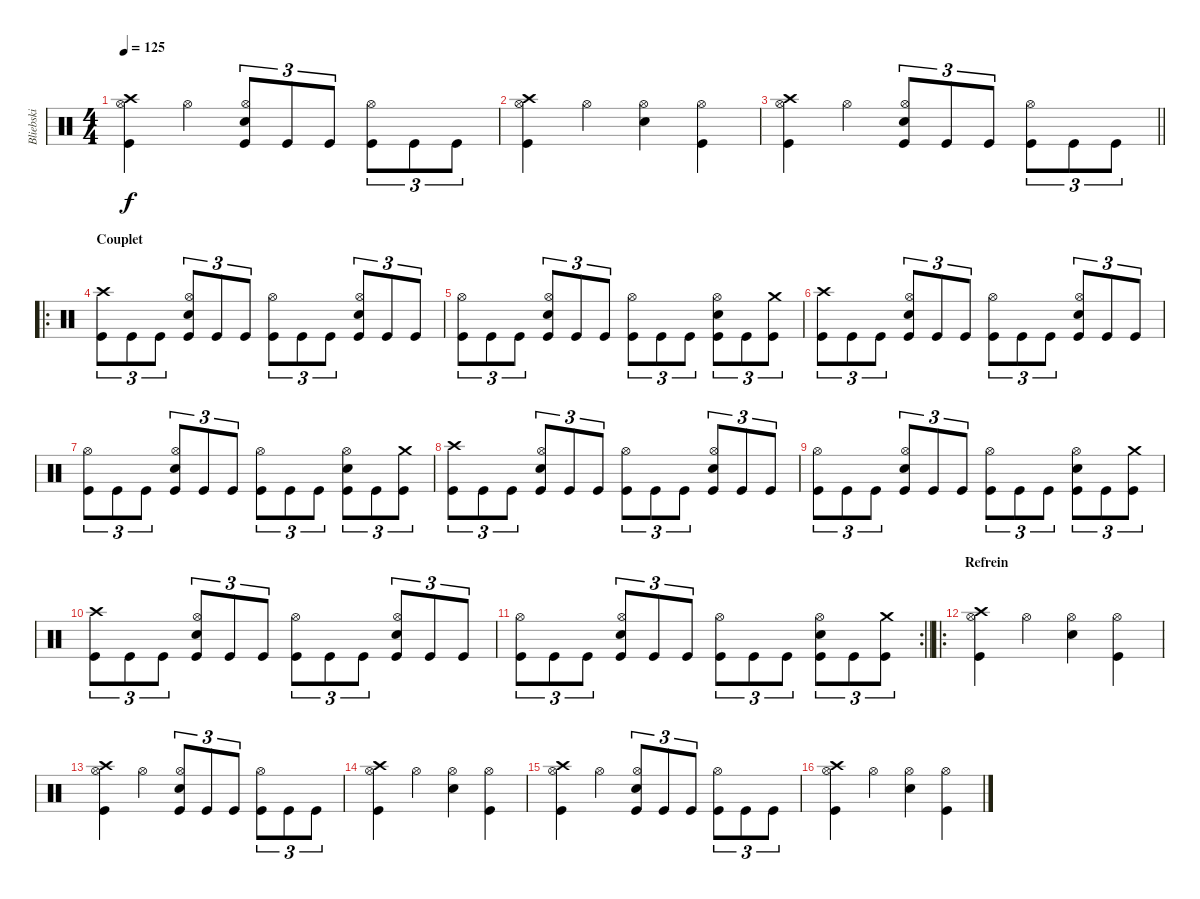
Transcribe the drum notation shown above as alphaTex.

\track ("Bliebski" "Bliebski") {instrument percussion}
\staff {score}
\articulation defaults
\ts (4 4)
\tempo 125
\clef neutral
\ks c
("Crash high (hit)" "Kick (hit)" "Hi-Hat (open)").4{dy f} "Hi-Hat (open)".4 ("Kick (hit)" "Hi-Hat (open)" "Snare (hit) 2").8{tu (3 2)} "Kick (hit)".8{tu (3 2)} "Kick (hit)".8{tu (3 2)} ("Kick (hit)" "Hi-Hat (open)").8{tu (3 2)} "Kick (hit)".8{tu (3 2)} "Kick (hit)".8{tu (3 2)} |
("Crash high (hit)" "Kick (hit)" "Hi-Hat (open)").4 "Hi-Hat (open)".4 ("Hi-Hat (open)" "Snare (hit) 2").4 ("Kick (hit)" "Hi-Hat (open)").4 |
\barLineRight lightlight
("Crash high (hit)" "Kick (hit)" "Hi-Hat (open)").4 "Hi-Hat (open)".4 ("Kick (hit)" "Hi-Hat (open)" "Snare (hit) 2").8{tu (3 2)} "Kick (hit)".8{tu (3 2)} "Kick (hit)".8{tu (3 2)} ("Kick (hit)" "Hi-Hat (open)").8{tu (3 2)} "Kick (hit)".8{tu (3 2)} "Kick (hit)".8{tu (3 2)} |
\ro
\section ("" "Couplet")
("Crash high (hit)" "Kick (hit)").8{tu (3 2)} "Kick (hit)".8{tu (3 2)} "Kick (hit)".8{tu (3 2)} ("Snare (hit) 2" "Kick (hit)" "Hi-Hat (open)").8{tu (3 2)} "Kick (hit)".8{tu (3 2)} "Kick (hit)".8{tu (3 2)} ("Kick (hit)" "Hi-Hat (open)").8{tu (3 2)} "Kick (hit)".8{tu (3 2)} "Kick (hit)".8{tu (3 2)} ("Snare (hit) 2" "Kick (hit)" "Hi-Hat (open)").8{tu (3 2)} "Kick (hit)".8{tu (3 2)} "Kick (hit)".8{tu (3 2)} |
("Kick (hit)" "Hi-Hat (open)").8{tu (3 2)} "Kick (hit)".8{tu (3 2)} "Kick (hit)".8{tu (3 2)} ("Snare (hit) 2" "Kick (hit)" "Hi-Hat (open)").8{tu (3 2)} "Kick (hit)".8{tu (3 2)} "Kick (hit)".8{tu (3 2)} ("Kick (hit)" "Hi-Hat (open)").8{tu (3 2)} "Kick (hit)".8{tu (3 2)} "Kick (hit)".8{tu (3 2)} ("Snare (hit) 2" "Kick (hit)" "Hi-Hat (open)").8{tu (3 2)} "Kick (hit)".8{tu (3 2)} ("Kick (hit)" "Crash medium (hit)").8{tu (3 2)} |
("Crash high (hit)" "Kick (hit)").8{tu (3 2)} "Kick (hit)".8{tu (3 2)} "Kick (hit)".8{tu (3 2)} ("Snare (hit) 2" "Kick (hit)" "Hi-Hat (open)").8{tu (3 2)} "Kick (hit)".8{tu (3 2)} "Kick (hit)".8{tu (3 2)} ("Kick (hit)" "Hi-Hat (open)").8{tu (3 2)} "Kick (hit)".8{tu (3 2)} "Kick (hit)".8{tu (3 2)} ("Snare (hit) 2" "Kick (hit)" "Hi-Hat (open)").8{tu (3 2)} "Kick (hit)".8{tu (3 2)} "Kick (hit)".8{tu (3 2)} |
("Kick (hit)" "Hi-Hat (open)").8{tu (3 2)} "Kick (hit)".8{tu (3 2)} "Kick (hit)".8{tu (3 2)} ("Snare (hit) 2" "Kick (hit)" "Hi-Hat (open)").8{tu (3 2)} "Kick (hit)".8{tu (3 2)} "Kick (hit)".8{tu (3 2)} ("Kick (hit)" "Hi-Hat (open)").8{tu (3 2)} "Kick (hit)".8{tu (3 2)} "Kick (hit)".8{tu (3 2)} ("Snare (hit) 2" "Kick (hit)" "Hi-Hat (open)").8{tu (3 2)} "Kick (hit)".8{tu (3 2)} ("Kick (hit)" "Crash medium (hit)").8{tu (3 2)} |
("Crash high (hit)" "Kick (hit)").8{tu (3 2)} "Kick (hit)".8{tu (3 2)} "Kick (hit)".8{tu (3 2)} ("Snare (hit) 2" "Kick (hit)" "Hi-Hat (open)").8{tu (3 2)} "Kick (hit)".8{tu (3 2)} "Kick (hit)".8{tu (3 2)} ("Kick (hit)" "Hi-Hat (open)").8{tu (3 2)} "Kick (hit)".8{tu (3 2)} "Kick (hit)".8{tu (3 2)} ("Snare (hit) 2" "Kick (hit)" "Hi-Hat (open)").8{tu (3 2)} "Kick (hit)".8{tu (3 2)} "Kick (hit)".8{tu (3 2)} |
("Kick (hit)" "Hi-Hat (open)").8{tu (3 2)} "Kick (hit)".8{tu (3 2)} "Kick (hit)".8{tu (3 2)} ("Snare (hit) 2" "Kick (hit)" "Hi-Hat (open)").8{tu (3 2)} "Kick (hit)".8{tu (3 2)} "Kick (hit)".8{tu (3 2)} ("Kick (hit)" "Hi-Hat (open)").8{tu (3 2)} "Kick (hit)".8{tu (3 2)} "Kick (hit)".8{tu (3 2)} ("Snare (hit) 2" "Kick (hit)" "Hi-Hat (open)").8{tu (3 2)} "Kick (hit)".8{tu (3 2)} ("Kick (hit)" "Crash medium (hit)").8{tu (3 2)} |
("Crash high (hit)" "Kick (hit)").8{tu (3 2)} "Kick (hit)".8{tu (3 2)} "Kick (hit)".8{tu (3 2)} ("Snare (hit) 2" "Kick (hit)" "Hi-Hat (open)").8{tu (3 2)} "Kick (hit)".8{tu (3 2)} "Kick (hit)".8{tu (3 2)} ("Kick (hit)" "Hi-Hat (open)").8{tu (3 2)} "Kick (hit)".8{tu (3 2)} "Kick (hit)".8{tu (3 2)} ("Snare (hit) 2" "Kick (hit)" "Hi-Hat (open)").8{tu (3 2)} "Kick (hit)".8{tu (3 2)} "Kick (hit)".8{tu (3 2)} |
\rc 2
\barLineRight lightlight
("Kick (hit)" "Hi-Hat (open)").8{tu (3 2)} "Kick (hit)".8{tu (3 2)} "Kick (hit)".8{tu (3 2)} ("Snare (hit) 2" "Kick (hit)" "Hi-Hat (open)").8{tu (3 2)} "Kick (hit)".8{tu (3 2)} "Kick (hit)".8{tu (3 2)} ("Kick (hit)" "Hi-Hat (open)").8{tu (3 2)} "Kick (hit)".8{tu (3 2)} "Kick (hit)".8{tu (3 2)} ("Snare (hit) 2" "Kick (hit)" "Hi-Hat (open)").8{tu (3 2)} "Kick (hit)".8{tu (3 2)} ("Kick (hit)" "Crash medium (hit)").8{tu (3 2)} |
\ro
\section ("" "Refrein")
("Crash high (hit)" "Kick (hit)" "Hi-Hat (open)").4 "Hi-Hat (open)".4 ("Hi-Hat (open)" "Snare (hit) 2").4 ("Kick (hit)" "Hi-Hat (open)").4 |
("Crash high (hit)" "Kick (hit)" "Hi-Hat (open)").4 "Hi-Hat (open)".4 ("Kick (hit)" "Hi-Hat (open)" "Snare (hit) 2").8{tu (3 2)} "Kick (hit)".8{tu (3 2)} "Kick (hit)".8{tu (3 2)} ("Kick (hit)" "Hi-Hat (open)").8{tu (3 2)} "Kick (hit)".8{tu (3 2)} "Kick (hit)".8{tu (3 2)} |
("Crash high (hit)" "Kick (hit)" "Hi-Hat (open)").4 "Hi-Hat (open)".4 ("Hi-Hat (open)" "Snare (hit) 2").4 ("Kick (hit)" "Hi-Hat (open)").4 |
("Crash high (hit)" "Kick (hit)" "Hi-Hat (open)").4 "Hi-Hat (open)".4 ("Kick (hit)" "Hi-Hat (open)" "Snare (hit) 2").8{tu (3 2)} "Kick (hit)".8{tu (3 2)} "Kick (hit)".8{tu (3 2)} ("Kick (hit)" "Hi-Hat (open)").8{tu (3 2)} "Kick (hit)".8{tu (3 2)} "Kick (hit)".8{tu (3 2)} |
("Crash high (hit)" "Kick (hit)" "Hi-Hat (open)").4 "Hi-Hat (open)".4 ("Hi-Hat (open)" "Snare (hit) 2").4 ("Kick (hit)" "Hi-Hat (open)").4
